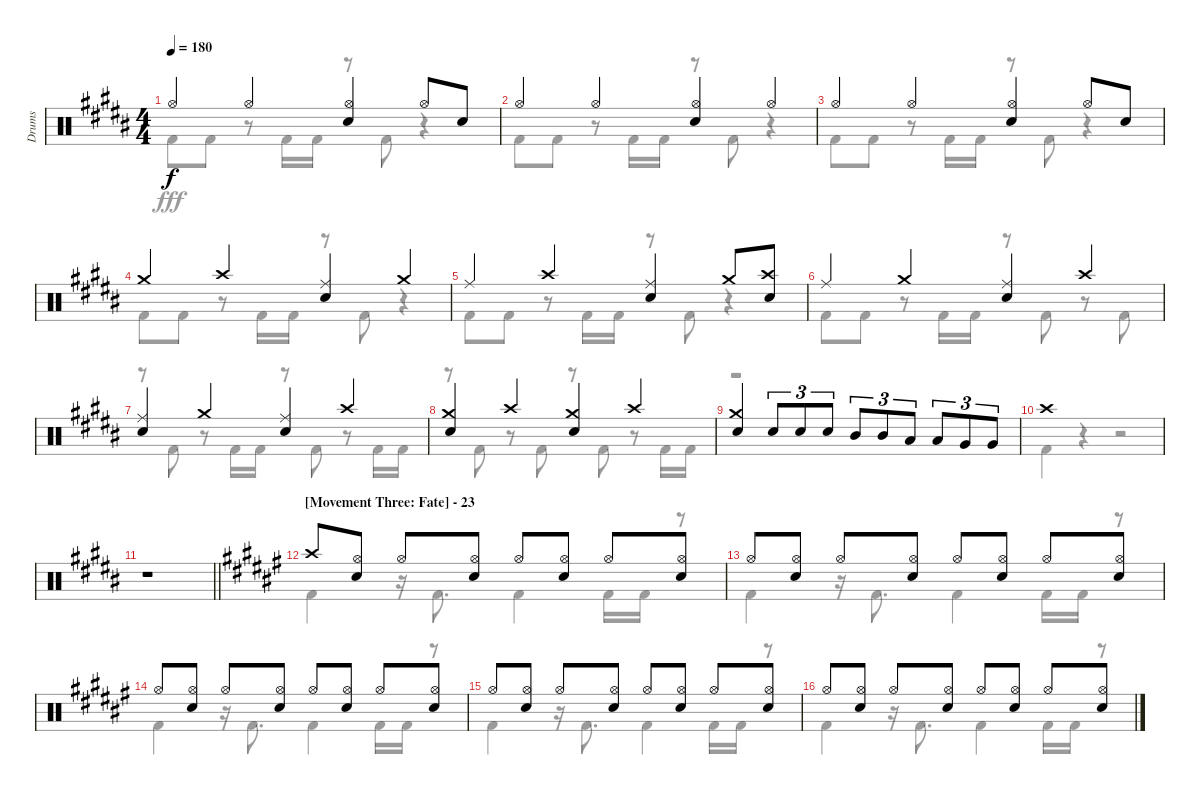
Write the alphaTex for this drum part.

\track ("Drums" "Drums") {instrument percussion}
\staff {score}
\articulation defaults
\voice
\ts (4 4)
\tempo 180
\clef neutral
\ks b "Hi-Hat (open)".4{dy f} "Hi-Hat (open)".4
("Hi-Hat (open)" "Snare (hit) 2").4 "Hi-Hat (open)".8 "Snare (hit) 2".8 |
"Hi-Hat (open)".4 "Hi-Hat (open)".4 ("Hi-Hat (open)" "Snare (hit) 2").4 "Hi-Hat (open)".4 |
"Hi-Hat (open)".4 "Hi-Hat (open)".4 ("Hi-Hat (open)" "Snare (hit) 2").4 "Hi-Hat (open)".8 "Snare (hit) 2".8 |
"Crash medium (hit)".4 "Crash high (hit)".4 ("Ride (middle)" "Snare (hit) 2").4 "Crash medium (hit)".4 |
"Ride (middle)".4 "Crash high (hit)".4 ("Ride (middle)" "Snare (hit) 2").4 "Crash medium (hit)".8 ("Crash high (hit)" "Snare (hit) 2").8 |
"Ride (middle)".4 "Crash medium (hit)".4 ("Ride (middle)" "Snare (hit) 2").4 "Crash high (hit)".4 |
("Ride (middle)" "Snare (hit) 2").4 "Crash medium (hit)".4 ("Ride (middle)" "Snare (hit) 2").4 "Crash high (hit)".4 |
("Crash medium (hit)" "Snare (hit) 2").4 "Crash high (hit)".4 ("Crash medium (hit)" "Snare (hit) 2").4 "Crash high (hit)".4 |
("Crash medium (hit)" "Snare (hit) 2").4 "Snare (hit) 2".8{tu (3 2)} "Snare (hit) 2".8{tu (3 2)} "Snare (hit) 2".8{tu (3 2)} "Mid Tom (hit)".8{tu (3 2)} "Mid Tom (hit)".8{tu (3 2)} "Low Tom (hit)".8{tu (3 2)} "Low Tom (hit)".8{tu (3 2)} "Very Low Tom (hit)".8{tu (3 2)} "Very Low Tom (hit)".8{tu (3 2)} |
"Crash high (hit)".1 |
\barLineRight lightlight
r.1 |
\section ("" "[Movement Three: Fate] - 23")
\ks f# "Crash high (hit)".8
("Hi-Hat (open)" "Snare (hit) 2").8 "Hi-Hat (open)".8 ("Hi-Hat (open)" "Snare (hit) 2").8 "Hi-Hat (open)".8 ("Hi-Hat (open)" "Snare (hit) 2").8 "Hi-Hat (open)".8 ("Hi-Hat (open)" "Snare (hit) 2").8 |
"Hi-Hat (open)".8 ("Hi-Hat (open)" "Snare (hit) 2").8 "Hi-Hat (open)".8 ("Hi-Hat (open)" "Snare (hit) 2").8 "Hi-Hat (open)".8 ("Hi-Hat (open)" "Snare (hit) 2").8 "Hi-Hat (open)".8 ("Hi-Hat (open)" "Snare (hit) 2").8 |
"Hi-Hat (open)".8 ("Hi-Hat (open)" "Snare (hit) 2").8 "Hi-Hat (open)".8 ("Hi-Hat (open)" "Snare (hit) 2").8 "Hi-Hat (open)".8 ("Hi-Hat (open)" "Snare (hit) 2").8 "Hi-Hat (open)".8 ("Hi-Hat (open)" "Snare (hit) 2").8 |
"Hi-Hat (open)".8 ("Hi-Hat (open)" "Snare (hit) 2").8 "Hi-Hat (open)".8 ("Hi-Hat (open)" "Snare (hit) 2").8 "Hi-Hat (open)".8 ("Hi-Hat (open)" "Snare (hit) 2").8 "Hi-Hat (open)".8 ("Hi-Hat (open)" "Snare (hit) 2").8 |
"Hi-Hat (open)".8 ("Hi-Hat (open)" "Snare (hit) 2").8 "Hi-Hat (open)".8 ("Hi-Hat (open)" "Snare (hit) 2").8 "Hi-Hat (open)".8 ("Hi-Hat (open)" "Snare (hit) 2").8 "Hi-Hat (open)".8 ("Hi-Hat (open)" "Snare (hit) 2").8
\voice
\clef neutral
\ottava regular
\simile none
\ks b "Kick (hit) 2".8{dy fff} "Kick (hit) 2".8
r.8 "Kick (hit) 2".16 "Kick (hit) 2".16 r.8 "Kick (hit) 2".8 r.4 |
"Kick (hit) 2".8 "Kick (hit) 2".8 r.8 "Kick (hit) 2".16 "Kick (hit) 2".16 r.8 "Kick (hit) 2".8 r.4 |
"Kick (hit) 2".8 "Kick (hit) 2".8 r.8 "Kick (hit) 2".16 "Kick (hit) 2".16 r.8 "Kick (hit) 2".8 r.4 |
"Kick (hit) 2".8 "Kick (hit) 2".8 r.8 "Kick (hit) 2".16 "Kick (hit) 2".16 r.8 "Kick (hit) 2".8 r.4 |
"Kick (hit) 2".8 "Kick (hit) 2".8 r.8 "Kick (hit) 2".16 "Kick (hit) 2".16 r.8 "Kick (hit) 2".8 r.4 |
"Kick (hit) 2".8 "Kick (hit) 2".8 r.8 "Kick (hit) 2".16 "Kick (hit) 2".16 r.8 "Kick (hit) 2".8 r.8 "Kick (hit) 2".8 |
r.8 "Kick (hit) 2".8 r.8 "Kick (hit) 2".16 "Kick (hit) 2".16 r.8 "Kick (hit) 2".8 r.8 "Kick (hit) 2".16 "Kick (hit) 2".16 |
r.8 "Kick (hit) 2".8 r.8 "Kick (hit) 2".8 r.8 "Kick (hit) 2".8 r.8 "Kick (hit) 2".16 "Kick (hit) 2".16 |
r.1 |
"Kick (hit) 2".4 r.4 r.2 |
\barLineRight lightlight
r.1 |
\ks f# "Kick (hit) 2".4
r.16 "Kick (hit) 2".8{d} "Kick (hit) 2".4 "Kick (hit) 2".16 "Kick (hit) 2".16 r.8 |
"Kick (hit) 2".4 r.16 "Kick (hit) 2".8{d} "Kick (hit) 2".4 "Kick (hit) 2".16 "Kick (hit) 2".16 r.8 |
"Kick (hit) 2".4 r.16 "Kick (hit) 2".8{d} "Kick (hit) 2".4 "Kick (hit) 2".16 "Kick (hit) 2".16 r.8 |
"Kick (hit) 2".4 r.16 "Kick (hit) 2".8{d} "Kick (hit) 2".4 "Kick (hit) 2".16 "Kick (hit) 2".16 r.8 |
"Kick (hit) 2".4 r.16 "Kick (hit) 2".8{d} "Kick (hit) 2".4 "Kick (hit) 2".16 "Kick (hit) 2".16 r.8
